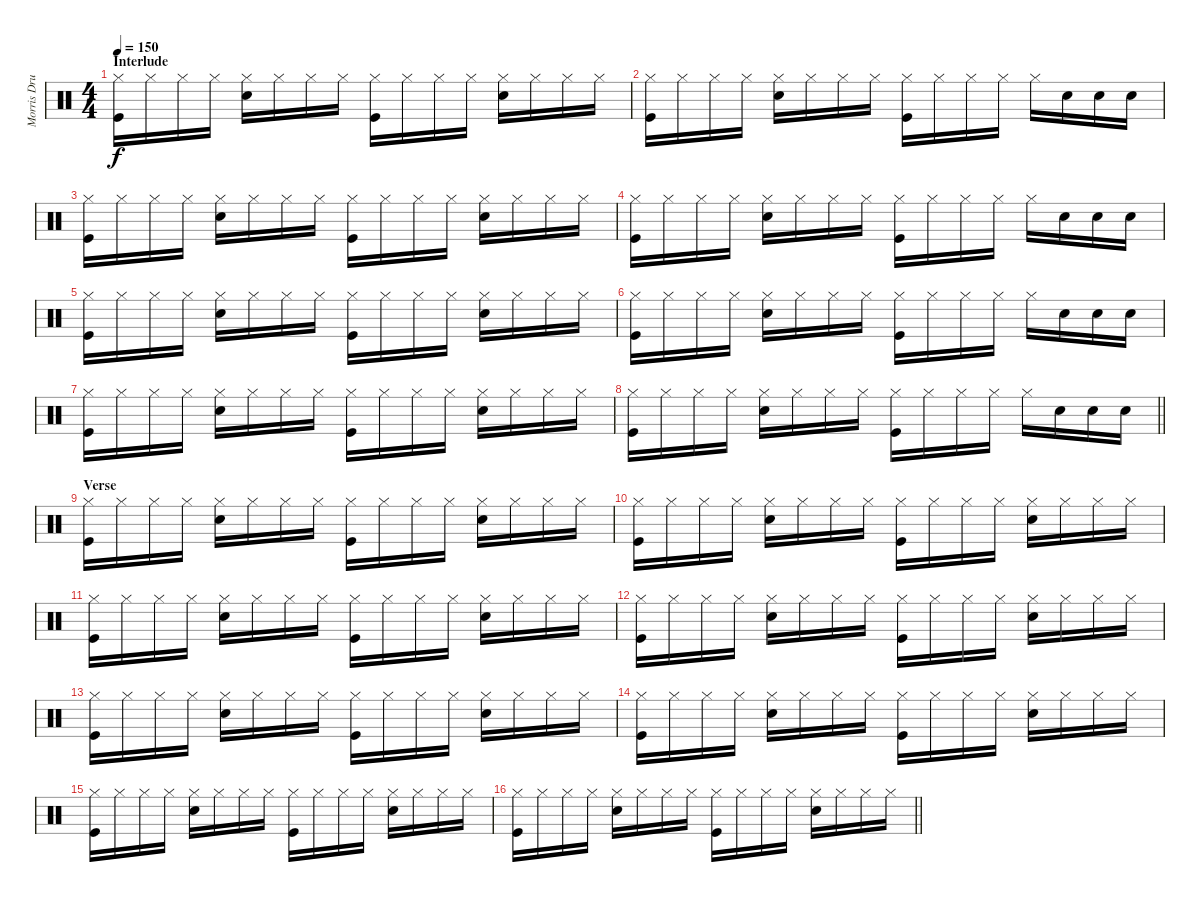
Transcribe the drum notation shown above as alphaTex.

\track ("Morris Drums" "Morris Dru") {instrument percussion}
\staff {score}
\articulation defaults
\ts (4 4)
\section ("" "Interlude")
\tempo 150
\clef neutral
\ks c
("Hi-Hat (closed)" "Kick (hit)").16{dy f} "Hi-Hat (closed)".16 "Hi-Hat (closed)".16 "Hi-Hat (closed)".16 ("Hi-Hat (closed)" "Snare (hit) 2").16 "Hi-Hat (closed)".16 "Hi-Hat (closed)".16 "Hi-Hat (closed)".16 ("Hi-Hat (closed)" "Kick (hit)").16 "Hi-Hat (closed)".16 "Hi-Hat (closed)".16 "Hi-Hat (closed)".16 ("Hi-Hat (closed)" "Snare (hit) 2").16 "Hi-Hat (closed)".16 "Hi-Hat (closed)".16 "Hi-Hat (closed)".16 |
("Hi-Hat (closed)" "Kick (hit)").16 "Hi-Hat (closed)".16 "Hi-Hat (closed)".16 "Hi-Hat (closed)".16 ("Hi-Hat (closed)" "Snare (hit) 2").16 "Hi-Hat (closed)".16 "Hi-Hat (closed)".16 "Hi-Hat (closed)".16 ("Hi-Hat (closed)" "Kick (hit)").16 "Hi-Hat (closed)".16 "Hi-Hat (closed)".16 "Hi-Hat (closed)".16 "Hi-Hat (closed)".16 "Snare (hit) 2".16 "Snare (hit) 2".16 "Snare (hit) 2".16 |
("Hi-Hat (closed)" "Kick (hit)").16 "Hi-Hat (closed)".16 "Hi-Hat (closed)".16 "Hi-Hat (closed)".16 ("Hi-Hat (closed)" "Snare (hit) 2").16 "Hi-Hat (closed)".16 "Hi-Hat (closed)".16 "Hi-Hat (closed)".16 ("Hi-Hat (closed)" "Kick (hit)").16 "Hi-Hat (closed)".16 "Hi-Hat (closed)".16 "Hi-Hat (closed)".16 ("Hi-Hat (closed)" "Snare (hit) 2").16 "Hi-Hat (closed)".16 "Hi-Hat (closed)".16 "Hi-Hat (closed)".16 |
("Hi-Hat (closed)" "Kick (hit)").16 "Hi-Hat (closed)".16 "Hi-Hat (closed)".16 "Hi-Hat (closed)".16 ("Hi-Hat (closed)" "Snare (hit) 2").16 "Hi-Hat (closed)".16 "Hi-Hat (closed)".16 "Hi-Hat (closed)".16 ("Hi-Hat (closed)" "Kick (hit)").16 "Hi-Hat (closed)".16 "Hi-Hat (closed)".16 "Hi-Hat (closed)".16 "Hi-Hat (closed)".16 "Snare (hit) 2".16 "Snare (hit) 2".16 "Snare (hit) 2".16 |
("Hi-Hat (closed)" "Kick (hit)").16 "Hi-Hat (closed)".16 "Hi-Hat (closed)".16 "Hi-Hat (closed)".16 ("Hi-Hat (closed)" "Snare (hit) 2").16 "Hi-Hat (closed)".16 "Hi-Hat (closed)".16 "Hi-Hat (closed)".16 ("Hi-Hat (closed)" "Kick (hit)").16 "Hi-Hat (closed)".16 "Hi-Hat (closed)".16 "Hi-Hat (closed)".16 ("Hi-Hat (closed)" "Snare (hit) 2").16 "Hi-Hat (closed)".16 "Hi-Hat (closed)".16 "Hi-Hat (closed)".16 |
("Hi-Hat (closed)" "Kick (hit)").16 "Hi-Hat (closed)".16 "Hi-Hat (closed)".16 "Hi-Hat (closed)".16 ("Hi-Hat (closed)" "Snare (hit) 2").16 "Hi-Hat (closed)".16 "Hi-Hat (closed)".16 "Hi-Hat (closed)".16 ("Hi-Hat (closed)" "Kick (hit)").16 "Hi-Hat (closed)".16 "Hi-Hat (closed)".16 "Hi-Hat (closed)".16 "Hi-Hat (closed)".16 "Snare (hit) 2".16 "Snare (hit) 2".16 "Snare (hit) 2".16 |
("Hi-Hat (closed)" "Kick (hit)").16 "Hi-Hat (closed)".16 "Hi-Hat (closed)".16 "Hi-Hat (closed)".16 ("Hi-Hat (closed)" "Snare (hit) 2").16 "Hi-Hat (closed)".16 "Hi-Hat (closed)".16 "Hi-Hat (closed)".16 ("Hi-Hat (closed)" "Kick (hit)").16 "Hi-Hat (closed)".16 "Hi-Hat (closed)".16 "Hi-Hat (closed)".16 ("Hi-Hat (closed)" "Snare (hit) 2").16 "Hi-Hat (closed)".16 "Hi-Hat (closed)".16 "Hi-Hat (closed)".16 |
\barLineRight lightlight
("Hi-Hat (closed)" "Kick (hit)").16 "Hi-Hat (closed)".16 "Hi-Hat (closed)".16 "Hi-Hat (closed)".16 ("Hi-Hat (closed)" "Snare (hit) 2").16 "Hi-Hat (closed)".16 "Hi-Hat (closed)".16 "Hi-Hat (closed)".16 ("Hi-Hat (closed)" "Kick (hit)").16 "Hi-Hat (closed)".16 "Hi-Hat (closed)".16 "Hi-Hat (closed)".16 "Hi-Hat (closed)".16 "Snare (hit) 2".16 "Snare (hit) 2".16 "Snare (hit) 2".16 |
\section ("" "Verse")
("Hi-Hat (closed)" "Kick (hit)").16 "Hi-Hat (closed)".16 "Hi-Hat (closed)".16 "Hi-Hat (closed)".16 ("Hi-Hat (closed)" "Snare (hit) 2").16 "Hi-Hat (closed)".16 "Hi-Hat (closed)".16 "Hi-Hat (closed)".16 ("Hi-Hat (closed)" "Kick (hit)").16 "Hi-Hat (closed)".16 "Hi-Hat (closed)".16 "Hi-Hat (closed)".16 ("Hi-Hat (closed)" "Snare (hit) 2").16 "Hi-Hat (closed)".16 "Hi-Hat (closed)".16 "Hi-Hat (closed)".16 |
("Hi-Hat (closed)" "Kick (hit)").16 "Hi-Hat (closed)".16 "Hi-Hat (closed)".16 "Hi-Hat (closed)".16 ("Hi-Hat (closed)" "Snare (hit) 2").16 "Hi-Hat (closed)".16 "Hi-Hat (closed)".16 "Hi-Hat (closed)".16 ("Hi-Hat (closed)" "Kick (hit)").16 "Hi-Hat (closed)".16 "Hi-Hat (closed)".16 "Hi-Hat (closed)".16 ("Hi-Hat (closed)" "Snare (hit) 2").16 "Hi-Hat (closed)".16 "Hi-Hat (closed)".16 "Hi-Hat (closed)".16 |
("Hi-Hat (closed)" "Kick (hit)").16 "Hi-Hat (closed)".16 "Hi-Hat (closed)".16 "Hi-Hat (closed)".16 ("Hi-Hat (closed)" "Snare (hit) 2").16 "Hi-Hat (closed)".16 "Hi-Hat (closed)".16 "Hi-Hat (closed)".16 ("Hi-Hat (closed)" "Kick (hit)").16 "Hi-Hat (closed)".16 "Hi-Hat (closed)".16 "Hi-Hat (closed)".16 ("Hi-Hat (closed)" "Snare (hit) 2").16 "Hi-Hat (closed)".16 "Hi-Hat (closed)".16 "Hi-Hat (closed)".16 |
("Hi-Hat (closed)" "Kick (hit)").16 "Hi-Hat (closed)".16 "Hi-Hat (closed)".16 "Hi-Hat (closed)".16 ("Hi-Hat (closed)" "Snare (hit) 2").16 "Hi-Hat (closed)".16 "Hi-Hat (closed)".16 "Hi-Hat (closed)".16 ("Hi-Hat (closed)" "Kick (hit)").16 "Hi-Hat (closed)".16 "Hi-Hat (closed)".16 "Hi-Hat (closed)".16 ("Hi-Hat (closed)" "Snare (hit) 2").16 "Hi-Hat (closed)".16 "Hi-Hat (closed)".16 "Hi-Hat (closed)".16 |
("Hi-Hat (closed)" "Kick (hit)").16 "Hi-Hat (closed)".16 "Hi-Hat (closed)".16 "Hi-Hat (closed)".16 ("Hi-Hat (closed)" "Snare (hit) 2").16 "Hi-Hat (closed)".16 "Hi-Hat (closed)".16 "Hi-Hat (closed)".16 ("Hi-Hat (closed)" "Kick (hit)").16 "Hi-Hat (closed)".16 "Hi-Hat (closed)".16 "Hi-Hat (closed)".16 ("Hi-Hat (closed)" "Snare (hit) 2").16 "Hi-Hat (closed)".16 "Hi-Hat (closed)".16 "Hi-Hat (closed)".16 |
("Hi-Hat (closed)" "Kick (hit)").16 "Hi-Hat (closed)".16 "Hi-Hat (closed)".16 "Hi-Hat (closed)".16 ("Hi-Hat (closed)" "Snare (hit) 2").16 "Hi-Hat (closed)".16 "Hi-Hat (closed)".16 "Hi-Hat (closed)".16 ("Hi-Hat (closed)" "Kick (hit)").16 "Hi-Hat (closed)".16 "Hi-Hat (closed)".16 "Hi-Hat (closed)".16 ("Hi-Hat (closed)" "Snare (hit) 2").16 "Hi-Hat (closed)".16 "Hi-Hat (closed)".16 "Hi-Hat (closed)".16 |
("Hi-Hat (closed)" "Kick (hit)").16 "Hi-Hat (closed)".16 "Hi-Hat (closed)".16 "Hi-Hat (closed)".16 ("Hi-Hat (closed)" "Snare (hit) 2").16 "Hi-Hat (closed)".16 "Hi-Hat (closed)".16 "Hi-Hat (closed)".16 ("Hi-Hat (closed)" "Kick (hit)").16 "Hi-Hat (closed)".16 "Hi-Hat (closed)".16 "Hi-Hat (closed)".16 ("Hi-Hat (closed)" "Snare (hit) 2").16 "Hi-Hat (closed)".16 "Hi-Hat (closed)".16 "Hi-Hat (closed)".16 |
\barLineRight lightlight
("Hi-Hat (closed)" "Kick (hit)").16 "Hi-Hat (closed)".16 "Hi-Hat (closed)".16 "Hi-Hat (closed)".16 ("Hi-Hat (closed)" "Snare (hit) 2").16 "Hi-Hat (closed)".16 "Hi-Hat (closed)".16 "Hi-Hat (closed)".16 ("Hi-Hat (closed)" "Kick (hit)").16 "Hi-Hat (closed)".16 "Hi-Hat (closed)".16 "Hi-Hat (closed)".16 ("Hi-Hat (closed)" "Snare (hit) 2").16 "Hi-Hat (closed)".16 "Hi-Hat (closed)".16 "Hi-Hat (closed)".16
